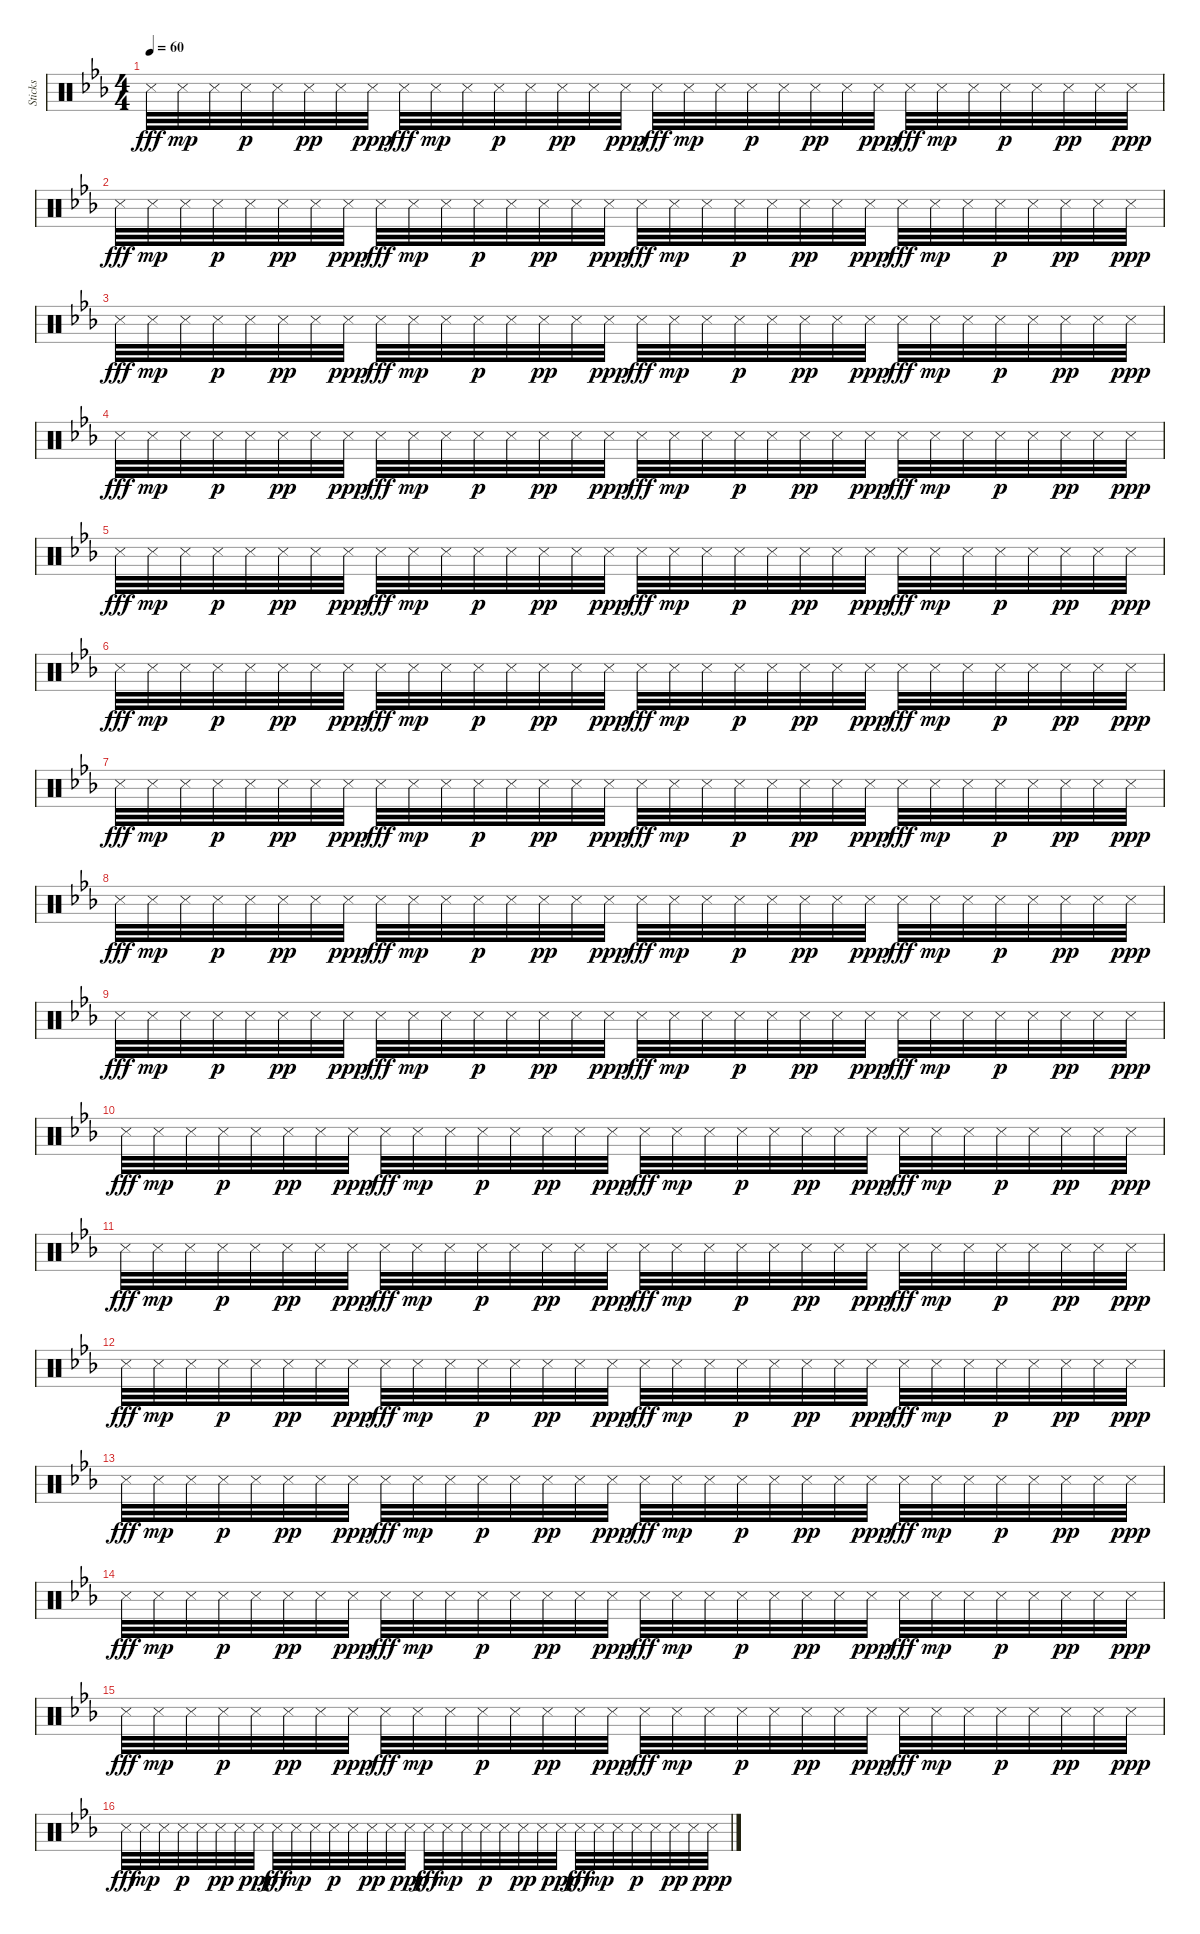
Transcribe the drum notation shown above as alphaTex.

\track ("Sticks" "Sticks") {instrument percussion}
\staff {score}
\articulation defaults
\ts (4 4)
\tempo 60
\clef neutral
\ks eb "Snare (side stick) 3".32{dy fff} "Snare (side stick) 3".32{dy mp} "Snare (side stick) 3".32 "Snare (side stick) 3".32{dy p} "Snare (side stick) 3".32 "Snare (side stick) 3".32{dy pp} "Snare (side stick) 3".32 "Snare (side stick) 3".32{dy ppp} "Snare (side stick) 3".32{dy fff} "Snare (side stick) 3".32{dy mp} "Snare (side stick) 3".32 "Snare (side stick) 3".32{dy p} "Snare (side stick) 3".32 "Snare (side stick) 3".32{dy pp} "Snare (side stick) 3".32 "Snare (side stick) 3".32{dy ppp} "Snare (side stick) 3".32{dy fff} "Snare (side stick) 3".32{dy mp} "Snare (side stick) 3".32 "Snare (side stick) 3".32{dy p} "Snare (side stick) 3".32 "Snare (side stick) 3".32{dy pp} "Snare (side stick) 3".32 "Snare (side stick) 3".32{dy ppp} "Snare (side stick) 3".32{dy fff} "Snare (side stick) 3".32{dy mp} "Snare (side stick) 3".32 "Snare (side stick) 3".32{dy p} "Snare (side stick) 3".32 "Snare (side stick) 3".32{dy pp} "Snare (side stick) 3".32 "Snare (side stick) 3".32{dy ppp}
|
"Snare (side stick) 3".32{dy fff} "Snare (side stick) 3".32{dy mp} "Snare (side stick) 3".32 "Snare (side stick) 3".32{dy p} "Snare (side stick) 3".32 "Snare (side stick) 3".32{dy pp} "Snare (side stick) 3".32 "Snare (side stick) 3".32{dy ppp} "Snare (side stick) 3".32{dy fff} "Snare (side stick) 3".32{dy mp} "Snare (side stick) 3".32 "Snare (side stick) 3".32{dy p} "Snare (side stick) 3".32 "Snare (side stick) 3".32{dy pp} "Snare (side stick) 3".32 "Snare (side stick) 3".32{dy ppp} "Snare (side stick) 3".32{dy fff} "Snare (side stick) 3".32{dy mp} "Snare (side stick) 3".32 "Snare (side stick) 3".32{dy p} "Snare (side stick) 3".32 "Snare (side stick) 3".32{dy pp} "Snare (side stick) 3".32 "Snare (side stick) 3".32{dy ppp} "Snare (side stick) 3".32{dy fff} "Snare (side stick) 3".32{dy mp} "Snare (side stick) 3".32 "Snare (side stick) 3".32{dy p} "Snare (side stick) 3".32 "Snare (side stick) 3".32{dy pp} "Snare (side stick) 3".32 "Snare (side stick) 3".32{dy ppp} |
"Snare (side stick) 3".32{dy fff} "Snare (side stick) 3".32{dy mp} "Snare (side stick) 3".32 "Snare (side stick) 3".32{dy p} "Snare (side stick) 3".32 "Snare (side stick) 3".32{dy pp} "Snare (side stick) 3".32 "Snare (side stick) 3".32{dy ppp} "Snare (side stick) 3".32{dy fff} "Snare (side stick) 3".32{dy mp} "Snare (side stick) 3".32 "Snare (side stick) 3".32{dy p} "Snare (side stick) 3".32 "Snare (side stick) 3".32{dy pp} "Snare (side stick) 3".32 "Snare (side stick) 3".32{dy ppp} "Snare (side stick) 3".32{dy fff} "Snare (side stick) 3".32{dy mp} "Snare (side stick) 3".32 "Snare (side stick) 3".32{dy p} "Snare (side stick) 3".32 "Snare (side stick) 3".32{dy pp} "Snare (side stick) 3".32 "Snare (side stick) 3".32{dy ppp} "Snare (side stick) 3".32{dy fff} "Snare (side stick) 3".32{dy mp} "Snare (side stick) 3".32 "Snare (side stick) 3".32{dy p} "Snare (side stick) 3".32 "Snare (side stick) 3".32{dy pp} "Snare (side stick) 3".32 "Snare (side stick) 3".32{dy ppp} |
"Snare (side stick) 3".32{dy fff} "Snare (side stick) 3".32{dy mp} "Snare (side stick) 3".32 "Snare (side stick) 3".32{dy p} "Snare (side stick) 3".32 "Snare (side stick) 3".32{dy pp} "Snare (side stick) 3".32 "Snare (side stick) 3".32{dy ppp} "Snare (side stick) 3".32{dy fff} "Snare (side stick) 3".32{dy mp} "Snare (side stick) 3".32 "Snare (side stick) 3".32{dy p} "Snare (side stick) 3".32 "Snare (side stick) 3".32{dy pp} "Snare (side stick) 3".32 "Snare (side stick) 3".32{dy ppp} "Snare (side stick) 3".32{dy fff} "Snare (side stick) 3".32{dy mp} "Snare (side stick) 3".32 "Snare (side stick) 3".32{dy p} "Snare (side stick) 3".32 "Snare (side stick) 3".32{dy pp} "Snare (side stick) 3".32 "Snare (side stick) 3".32{dy ppp} "Snare (side stick) 3".32{dy fff} "Snare (side stick) 3".32{dy mp} "Snare (side stick) 3".32 "Snare (side stick) 3".32{dy p} "Snare (side stick) 3".32 "Snare (side stick) 3".32{dy pp} "Snare (side stick) 3".32 "Snare (side stick) 3".32{dy ppp} |
"Snare (side stick) 3".32{dy fff} "Snare (side stick) 3".32{dy mp} "Snare (side stick) 3".32 "Snare (side stick) 3".32{dy p} "Snare (side stick) 3".32 "Snare (side stick) 3".32{dy pp} "Snare (side stick) 3".32 "Snare (side stick) 3".32{dy ppp} "Snare (side stick) 3".32{dy fff} "Snare (side stick) 3".32{dy mp} "Snare (side stick) 3".32 "Snare (side stick) 3".32{dy p} "Snare (side stick) 3".32 "Snare (side stick) 3".32{dy pp} "Snare (side stick) 3".32 "Snare (side stick) 3".32{dy ppp} "Snare (side stick) 3".32{dy fff} "Snare (side stick) 3".32{dy mp} "Snare (side stick) 3".32 "Snare (side stick) 3".32{dy p} "Snare (side stick) 3".32 "Snare (side stick) 3".32{dy pp} "Snare (side stick) 3".32 "Snare (side stick) 3".32{dy ppp} "Snare (side stick) 3".32{dy fff} "Snare (side stick) 3".32{dy mp} "Snare (side stick) 3".32 "Snare (side stick) 3".32{dy p} "Snare (side stick) 3".32 "Snare (side stick) 3".32{dy pp} "Snare (side stick) 3".32 "Snare (side stick) 3".32{dy ppp} |
"Snare (side stick) 3".32{dy fff} "Snare (side stick) 3".32{dy mp} "Snare (side stick) 3".32 "Snare (side stick) 3".32{dy p} "Snare (side stick) 3".32 "Snare (side stick) 3".32{dy pp} "Snare (side stick) 3".32 "Snare (side stick) 3".32{dy ppp} "Snare (side stick) 3".32{dy fff} "Snare (side stick) 3".32{dy mp} "Snare (side stick) 3".32 "Snare (side stick) 3".32{dy p} "Snare (side stick) 3".32 "Snare (side stick) 3".32{dy pp} "Snare (side stick) 3".32 "Snare (side stick) 3".32{dy ppp} "Snare (side stick) 3".32{dy fff} "Snare (side stick) 3".32{dy mp} "Snare (side stick) 3".32 "Snare (side stick) 3".32{dy p} "Snare (side stick) 3".32 "Snare (side stick) 3".32{dy pp} "Snare (side stick) 3".32 "Snare (side stick) 3".32{dy ppp} "Snare (side stick) 3".32{dy fff} "Snare (side stick) 3".32{dy mp} "Snare (side stick) 3".32 "Snare (side stick) 3".32{dy p} "Snare (side stick) 3".32 "Snare (side stick) 3".32{dy pp} "Snare (side stick) 3".32 "Snare (side stick) 3".32{dy ppp} |
"Snare (side stick) 3".32{dy fff} "Snare (side stick) 3".32{dy mp} "Snare (side stick) 3".32 "Snare (side stick) 3".32{dy p} "Snare (side stick) 3".32 "Snare (side stick) 3".32{dy pp} "Snare (side stick) 3".32 "Snare (side stick) 3".32{dy ppp} "Snare (side stick) 3".32{dy fff} "Snare (side stick) 3".32{dy mp} "Snare (side stick) 3".32 "Snare (side stick) 3".32{dy p} "Snare (side stick) 3".32 "Snare (side stick) 3".32{dy pp} "Snare (side stick) 3".32 "Snare (side stick) 3".32{dy ppp} "Snare (side stick) 3".32{dy fff} "Snare (side stick) 3".32{dy mp} "Snare (side stick) 3".32 "Snare (side stick) 3".32{dy p} "Snare (side stick) 3".32 "Snare (side stick) 3".32{dy pp} "Snare (side stick) 3".32 "Snare (side stick) 3".32{dy ppp} "Snare (side stick) 3".32{dy fff} "Snare (side stick) 3".32{dy mp} "Snare (side stick) 3".32 "Snare (side stick) 3".32{dy p} "Snare (side stick) 3".32 "Snare (side stick) 3".32{dy pp} "Snare (side stick) 3".32 "Snare (side stick) 3".32{dy ppp} |
"Snare (side stick) 3".32{dy fff} "Snare (side stick) 3".32{dy mp} "Snare (side stick) 3".32 "Snare (side stick) 3".32{dy p} "Snare (side stick) 3".32 "Snare (side stick) 3".32{dy pp} "Snare (side stick) 3".32 "Snare (side stick) 3".32{dy ppp} "Snare (side stick) 3".32{dy fff} "Snare (side stick) 3".32{dy mp} "Snare (side stick) 3".32 "Snare (side stick) 3".32{dy p} "Snare (side stick) 3".32 "Snare (side stick) 3".32{dy pp} "Snare (side stick) 3".32 "Snare (side stick) 3".32{dy ppp} "Snare (side stick) 3".32{dy fff} "Snare (side stick) 3".32{dy mp} "Snare (side stick) 3".32 "Snare (side stick) 3".32{dy p} "Snare (side stick) 3".32 "Snare (side stick) 3".32{dy pp} "Snare (side stick) 3".32 "Snare (side stick) 3".32{dy ppp} "Snare (side stick) 3".32{dy fff} "Snare (side stick) 3".32{dy mp} "Snare (side stick) 3".32 "Snare (side stick) 3".32{dy p} "Snare (side stick) 3".32 "Snare (side stick) 3".32{dy pp} "Snare (side stick) 3".32 "Snare (side stick) 3".32{dy ppp} |
"Snare (side stick) 3".32{dy fff} "Snare (side stick) 3".32{dy mp} "Snare (side stick) 3".32 "Snare (side stick) 3".32{dy p} "Snare (side stick) 3".32 "Snare (side stick) 3".32{dy pp} "Snare (side stick) 3".32 "Snare (side stick) 3".32{dy ppp} "Snare (side stick) 3".32{dy fff} "Snare (side stick) 3".32{dy mp} "Snare (side stick) 3".32 "Snare (side stick) 3".32{dy p} "Snare (side stick) 3".32 "Snare (side stick) 3".32{dy pp} "Snare (side stick) 3".32 "Snare (side stick) 3".32{dy ppp} "Snare (side stick) 3".32{dy fff} "Snare (side stick) 3".32{dy mp} "Snare (side stick) 3".32 "Snare (side stick) 3".32{dy p} "Snare (side stick) 3".32 "Snare (side stick) 3".32{dy pp} "Snare (side stick) 3".32 "Snare (side stick) 3".32{dy ppp} "Snare (side stick) 3".32{dy fff} "Snare (side stick) 3".32{dy mp} "Snare (side stick) 3".32 "Snare (side stick) 3".32{dy p} "Snare (side stick) 3".32 "Snare (side stick) 3".32{dy pp} "Snare (side stick) 3".32 "Snare (side stick) 3".32{dy ppp} |
"Snare (side stick) 3".32{dy fff} "Snare (side stick) 3".32{dy mp} "Snare (side stick) 3".32 "Snare (side stick) 3".32{dy p} "Snare (side stick) 3".32 "Snare (side stick) 3".32{dy pp} "Snare (side stick) 3".32 "Snare (side stick) 3".32{dy ppp} "Snare (side stick) 3".32{dy fff} "Snare (side stick) 3".32{dy mp} "Snare (side stick) 3".32 "Snare (side stick) 3".32{dy p} "Snare (side stick) 3".32 "Snare (side stick) 3".32{dy pp} "Snare (side stick) 3".32 "Snare (side stick) 3".32{dy ppp} "Snare (side stick) 3".32{dy fff} "Snare (side stick) 3".32{dy mp} "Snare (side stick) 3".32 "Snare (side stick) 3".32{dy p} "Snare (side stick) 3".32 "Snare (side stick) 3".32{dy pp} "Snare (side stick) 3".32 "Snare (side stick) 3".32{dy ppp} "Snare (side stick) 3".32{dy fff} "Snare (side stick) 3".32{dy mp} "Snare (side stick) 3".32 "Snare (side stick) 3".32{dy p} "Snare (side stick) 3".32 "Snare (side stick) 3".32{dy pp} "Snare (side stick) 3".32 "Snare (side stick) 3".32{dy ppp} |
"Snare (side stick) 3".32{dy fff} "Snare (side stick) 3".32{dy mp} "Snare (side stick) 3".32 "Snare (side stick) 3".32{dy p} "Snare (side stick) 3".32 "Snare (side stick) 3".32{dy pp} "Snare (side stick) 3".32 "Snare (side stick) 3".32{dy ppp} "Snare (side stick) 3".32{dy fff} "Snare (side stick) 3".32{dy mp} "Snare (side stick) 3".32 "Snare (side stick) 3".32{dy p} "Snare (side stick) 3".32 "Snare (side stick) 3".32{dy pp} "Snare (side stick) 3".32 "Snare (side stick) 3".32{dy ppp} "Snare (side stick) 3".32{dy fff} "Snare (side stick) 3".32{dy mp} "Snare (side stick) 3".32 "Snare (side stick) 3".32{dy p} "Snare (side stick) 3".32 "Snare (side stick) 3".32{dy pp} "Snare (side stick) 3".32 "Snare (side stick) 3".32{dy ppp} "Snare (side stick) 3".32{dy fff} "Snare (side stick) 3".32{dy mp} "Snare (side stick) 3".32 "Snare (side stick) 3".32{dy p} "Snare (side stick) 3".32 "Snare (side stick) 3".32{dy pp} "Snare (side stick) 3".32 "Snare (side stick) 3".32{dy ppp} |
"Snare (side stick) 3".32{dy fff} "Snare (side stick) 3".32{dy mp} "Snare (side stick) 3".32 "Snare (side stick) 3".32{dy p} "Snare (side stick) 3".32 "Snare (side stick) 3".32{dy pp} "Snare (side stick) 3".32 "Snare (side stick) 3".32{dy ppp} "Snare (side stick) 3".32{dy fff} "Snare (side stick) 3".32{dy mp} "Snare (side stick) 3".32 "Snare (side stick) 3".32{dy p} "Snare (side stick) 3".32 "Snare (side stick) 3".32{dy pp} "Snare (side stick) 3".32 "Snare (side stick) 3".32{dy ppp} "Snare (side stick) 3".32{dy fff} "Snare (side stick) 3".32{dy mp} "Snare (side stick) 3".32 "Snare (side stick) 3".32{dy p} "Snare (side stick) 3".32 "Snare (side stick) 3".32{dy pp} "Snare (side stick) 3".32 "Snare (side stick) 3".32{dy ppp} "Snare (side stick) 3".32{dy fff} "Snare (side stick) 3".32{dy mp} "Snare (side stick) 3".32 "Snare (side stick) 3".32{dy p} "Snare (side stick) 3".32 "Snare (side stick) 3".32{dy pp} "Snare (side stick) 3".32 "Snare (side stick) 3".32{dy ppp} |
"Snare (side stick) 3".32{dy fff} "Snare (side stick) 3".32{dy mp} "Snare (side stick) 3".32 "Snare (side stick) 3".32{dy p} "Snare (side stick) 3".32 "Snare (side stick) 3".32{dy pp} "Snare (side stick) 3".32 "Snare (side stick) 3".32{dy ppp} "Snare (side stick) 3".32{dy fff} "Snare (side stick) 3".32{dy mp} "Snare (side stick) 3".32 "Snare (side stick) 3".32{dy p} "Snare (side stick) 3".32 "Snare (side stick) 3".32{dy pp} "Snare (side stick) 3".32 "Snare (side stick) 3".32{dy ppp} "Snare (side stick) 3".32{dy fff} "Snare (side stick) 3".32{dy mp} "Snare (side stick) 3".32 "Snare (side stick) 3".32{dy p} "Snare (side stick) 3".32 "Snare (side stick) 3".32{dy pp} "Snare (side stick) 3".32 "Snare (side stick) 3".32{dy ppp} "Snare (side stick) 3".32{dy fff} "Snare (side stick) 3".32{dy mp} "Snare (side stick) 3".32 "Snare (side stick) 3".32{dy p} "Snare (side stick) 3".32 "Snare (side stick) 3".32{dy pp} "Snare (side stick) 3".32 "Snare (side stick) 3".32{dy ppp} |
"Snare (side stick) 3".32{dy fff} "Snare (side stick) 3".32{dy mp} "Snare (side stick) 3".32 "Snare (side stick) 3".32{dy p} "Snare (side stick) 3".32 "Snare (side stick) 3".32{dy pp} "Snare (side stick) 3".32 "Snare (side stick) 3".32{dy ppp} "Snare (side stick) 3".32{dy fff} "Snare (side stick) 3".32{dy mp} "Snare (side stick) 3".32 "Snare (side stick) 3".32{dy p} "Snare (side stick) 3".32 "Snare (side stick) 3".32{dy pp} "Snare (side stick) 3".32 "Snare (side stick) 3".32{dy ppp} "Snare (side stick) 3".32{dy fff} "Snare (side stick) 3".32{dy mp} "Snare (side stick) 3".32 "Snare (side stick) 3".32{dy p} "Snare (side stick) 3".32 "Snare (side stick) 3".32{dy pp} "Snare (side stick) 3".32 "Snare (side stick) 3".32{dy ppp} "Snare (side stick) 3".32{dy fff} "Snare (side stick) 3".32{dy mp} "Snare (side stick) 3".32 "Snare (side stick) 3".32{dy p} "Snare (side stick) 3".32 "Snare (side stick) 3".32{dy pp} "Snare (side stick) 3".32 "Snare (side stick) 3".32{dy ppp} |
"Snare (side stick) 3".32{dy fff} "Snare (side stick) 3".32{dy mp} "Snare (side stick) 3".32 "Snare (side stick) 3".32{dy p} "Snare (side stick) 3".32 "Snare (side stick) 3".32{dy pp} "Snare (side stick) 3".32 "Snare (side stick) 3".32{dy ppp} "Snare (side stick) 3".32{dy fff} "Snare (side stick) 3".32{dy mp} "Snare (side stick) 3".32 "Snare (side stick) 3".32{dy p} "Snare (side stick) 3".32 "Snare (side stick) 3".32{dy pp} "Snare (side stick) 3".32 "Snare (side stick) 3".32{dy ppp} "Snare (side stick) 3".32{dy fff} "Snare (side stick) 3".32{dy mp} "Snare (side stick) 3".32 "Snare (side stick) 3".32{dy p} "Snare (side stick) 3".32 "Snare (side stick) 3".32{dy pp} "Snare (side stick) 3".32 "Snare (side stick) 3".32{dy ppp} "Snare (side stick) 3".32{dy fff} "Snare (side stick) 3".32{dy mp} "Snare (side stick) 3".32 "Snare (side stick) 3".32{dy p} "Snare (side stick) 3".32 "Snare (side stick) 3".32{dy pp} "Snare (side stick) 3".32 "Snare (side stick) 3".32{dy ppp} |
"Snare (side stick) 3".32{dy fff} "Snare (side stick) 3".32{dy mp} "Snare (side stick) 3".32 "Snare (side stick) 3".32{dy p} "Snare (side stick) 3".32 "Snare (side stick) 3".32{dy pp} "Snare (side stick) 3".32 "Snare (side stick) 3".32{dy ppp} "Snare (side stick) 3".32{dy fff} "Snare (side stick) 3".32{dy mp} "Snare (side stick) 3".32 "Snare (side stick) 3".32{dy p} "Snare (side stick) 3".32 "Snare (side stick) 3".32{dy pp} "Snare (side stick) 3".32 "Snare (side stick) 3".32{dy ppp} "Snare (side stick) 3".32{dy fff} "Snare (side stick) 3".32{dy mp} "Snare (side stick) 3".32 "Snare (side stick) 3".32{dy p} "Snare (side stick) 3".32 "Snare (side stick) 3".32{dy pp} "Snare (side stick) 3".32 "Snare (side stick) 3".32{dy ppp} "Snare (side stick) 3".32{dy fff} "Snare (side stick) 3".32{dy mp} "Snare (side stick) 3".32 "Snare (side stick) 3".32{dy p} "Snare (side stick) 3".32 "Snare (side stick) 3".32{dy pp} "Snare (side stick) 3".32 "Snare (side stick) 3".32{dy ppp}
